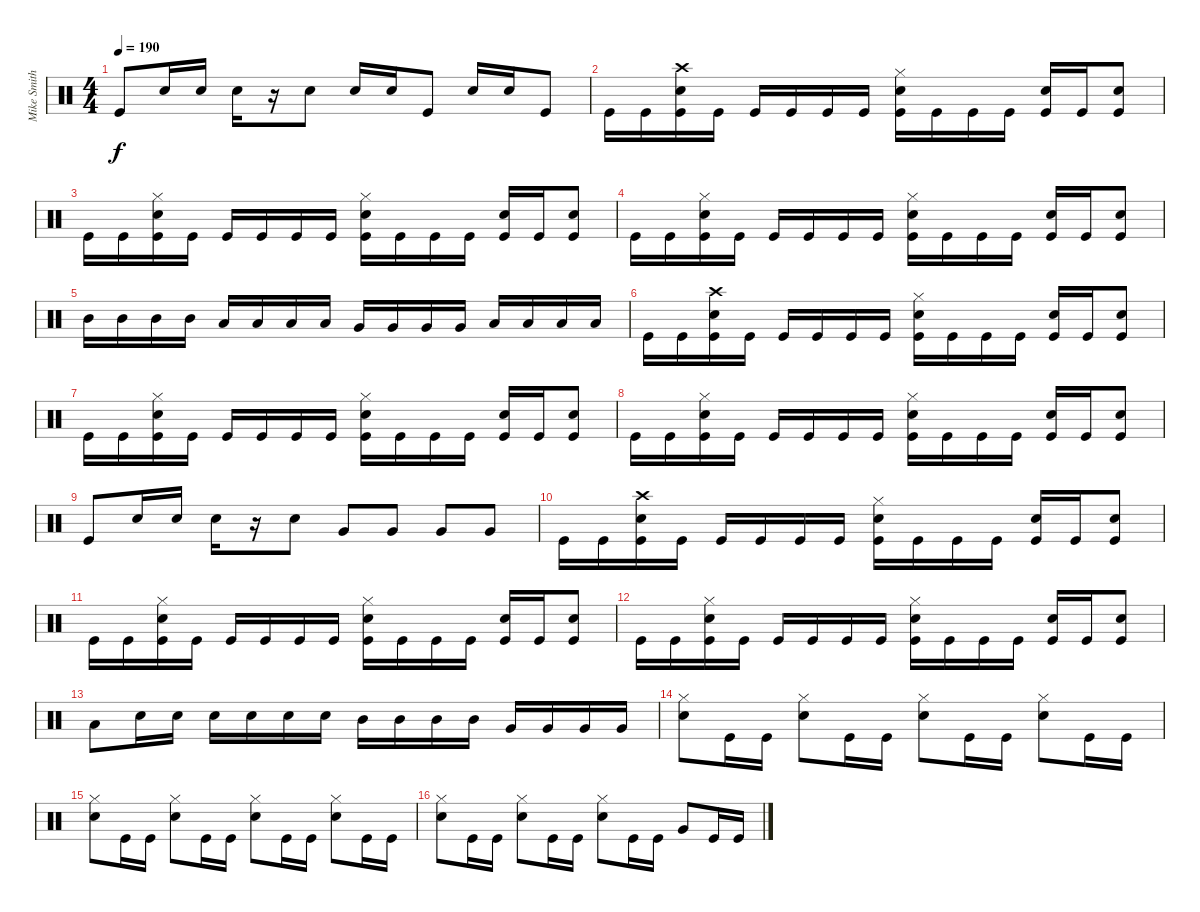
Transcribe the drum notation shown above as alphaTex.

\track ("Mike Smith" "Mike Smith") {instrument percussion}
\staff
\articulation defaults
\ts (4 4)
\tempo 190
\clef neutral
\ks c "Kick (hit)".8{dy f} "Snare (hit) 2".16 "Snare (hit) 2".16 "Snare (hit) 2".16
r.16 "Snare (hit) 2".8 "Snare (hit) 2".16 "Snare (hit) 2".16 "Kick (hit)".8 "Snare (hit) 2".16 "Snare (hit) 2".16 "Kick (hit)".8 |
"Kick (hit)".16 "Kick (hit)".16 ("Crash high (hit)" "Snare (hit) 2" "Kick (hit)").16 "Kick (hit)".16 "Kick (hit)".16 "Kick (hit)".16 "Kick (hit)".16 "Kick (hit)".16 ("Hi-Hat (closed)" "Snare (hit) 2" "Kick (hit)").16 "Kick (hit)".16 "Kick (hit)".16 "Kick (hit)".16 ("Snare (hit) 2" "Kick (hit)").16 "Kick (hit)".16 ("Snare (hit) 2" "Kick (hit)").8 |
"Kick (hit)".16 "Kick (hit)".16 ("Hi-Hat (closed)" "Snare (hit) 2" "Kick (hit)").16 "Kick (hit)".16 "Kick (hit)".16 "Kick (hit)".16 "Kick (hit)".16 "Kick (hit)".16 ("Hi-Hat (closed)" "Snare (hit) 2" "Kick (hit)").16 "Kick (hit)".16 "Kick (hit)".16 "Kick (hit)".16 ("Snare (hit) 2" "Kick (hit)").16 "Kick (hit)".16 ("Snare (hit) 2" "Kick (hit)").8 |
"Kick (hit)".16 "Kick (hit)".16 ("Hi-Hat (closed)" "Snare (hit) 2" "Kick (hit)").16 "Kick (hit)".16 "Kick (hit)".16 "Kick (hit)".16 "Kick (hit)".16 "Kick (hit)".16 ("Hi-Hat (closed)" "Snare (hit) 2" "Kick (hit)").16 "Kick (hit)".16 "Kick (hit)".16 "Kick (hit)".16 ("Snare (hit) 2" "Kick (hit)").16 "Kick (hit)".16 ("Snare (hit) 2" "Kick (hit)").8 |
"Mid Tom (hit)".16 "Mid Tom (hit)".16 "Mid Tom (hit)".16 "Mid Tom (hit)".16 "Low Tom (hit)".16 "Low Tom (hit)".16 "Low Tom (hit)".16 "Low Tom (hit)".16 "Very Low Tom (hit)".16 "Very Low Tom (hit)".16 "Very Low Tom (hit)".16 "Very Low Tom (hit)".16 "Low Floor Tom (hit)".16 "Low Floor Tom (hit)".16 "Low Floor Tom (hit)".16 "Low Floor Tom (hit)".16 |
"Kick (hit)".16 "Kick (hit)".16 ("Crash high (hit)" "Snare (hit) 2" "Kick (hit)").16 "Kick (hit)".16 "Kick (hit)".16 "Kick (hit)".16 "Kick (hit)".16 "Kick (hit)".16 ("Hi-Hat (closed)" "Snare (hit) 2" "Kick (hit)").16 "Kick (hit)".16 "Kick (hit)".16 "Kick (hit)".16 ("Snare (hit) 2" "Kick (hit)").16 "Kick (hit)".16 ("Snare (hit) 2" "Kick (hit)").8 |
"Kick (hit)".16 "Kick (hit)".16 ("Hi-Hat (closed)" "Snare (hit) 2" "Kick (hit)").16 "Kick (hit)".16 "Kick (hit)".16 "Kick (hit)".16 "Kick (hit)".16 "Kick (hit)".16 ("Hi-Hat (closed)" "Snare (hit) 2" "Kick (hit)").16 "Kick (hit)".16 "Kick (hit)".16 "Kick (hit)".16 ("Snare (hit) 2" "Kick (hit)").16 "Kick (hit)".16 ("Snare (hit) 2" "Kick (hit)").8 |
"Kick (hit)".16 "Kick (hit)".16 ("Hi-Hat (closed)" "Snare (hit) 2" "Kick (hit)").16 "Kick (hit)".16 "Kick (hit)".16 "Kick (hit)".16 "Kick (hit)".16 "Kick (hit)".16 ("Hi-Hat (closed)" "Snare (hit) 2" "Kick (hit)").16 "Kick (hit)".16 "Kick (hit)".16 "Kick (hit)".16 ("Snare (hit) 2" "Kick (hit)").16 "Kick (hit)".16 ("Snare (hit) 2" "Kick (hit)").8 |
"Kick (hit)".8 "Snare (hit) 2".16 "Snare (hit) 2".16 "Snare (hit) 2".16 r.16 "Snare (hit) 2".8 "Very Low Tom (hit)".8 "Very Low Tom (hit)".8 "Very Low Tom (hit)".8 "Very Low Tom (hit)".8 |
"Kick (hit)".16 "Kick (hit)".16 ("Crash high (hit)" "Snare (hit) 2" "Kick (hit)").16 "Kick (hit)".16 "Kick (hit)".16 "Kick (hit)".16 "Kick (hit)".16 "Kick (hit)".16 ("Hi-Hat (closed)" "Snare (hit) 2" "Kick (hit)").16 "Kick (hit)".16 "Kick (hit)".16 "Kick (hit)".16 ("Snare (hit) 2" "Kick (hit)").16 "Kick (hit)".16 ("Snare (hit) 2" "Kick (hit)").8 |
"Kick (hit)".16 "Kick (hit)".16 ("Hi-Hat (closed)" "Snare (hit) 2" "Kick (hit)").16 "Kick (hit)".16 "Kick (hit)".16 "Kick (hit)".16 "Kick (hit)".16 "Kick (hit)".16 ("Hi-Hat (closed)" "Snare (hit) 2" "Kick (hit)").16 "Kick (hit)".16 "Kick (hit)".16 "Kick (hit)".16 ("Snare (hit) 2" "Kick (hit)").16 "Kick (hit)".16 ("Snare (hit) 2" "Kick (hit)").8 |
"Kick (hit)".16 "Kick (hit)".16 ("Hi-Hat (closed)" "Snare (hit) 2" "Kick (hit)").16 "Kick (hit)".16 "Kick (hit)".16 "Kick (hit)".16 "Kick (hit)".16 "Kick (hit)".16 ("Hi-Hat (closed)" "Snare (hit) 2" "Kick (hit)").16 "Kick (hit)".16 "Kick (hit)".16 "Kick (hit)".16 ("Snare (hit) 2" "Kick (hit)").16 "Kick (hit)".16 ("Snare (hit) 2" "Kick (hit)").8 |
"Low Floor Tom (hit)".8 "Snare (hit) 2".16 "Snare (hit) 2".16 "Snare (hit) 2".16 "Snare (hit) 2".16 "Snare (hit) 2".16 "Snare (hit) 2".16 "Mid Tom (hit)".16 "Mid Tom (hit)".16 "Mid Tom (hit)".16 "Mid Tom (hit)".16 "Very Low Tom (hit)".16 "Very Low Tom (hit)".16 "Very Low Tom (hit)".16 "Very Low Tom (hit)".16 |
("Hi-Hat (closed)" "Snare (hit) 2").8 "Kick (hit)".16 "Kick (hit)".16 ("Hi-Hat (closed)" "Snare (hit) 2").8 "Kick (hit)".16 "Kick (hit)".16 ("Hi-Hat (closed)" "Snare (hit) 2").8 "Kick (hit)".16 "Kick (hit)".16 ("Hi-Hat (closed)" "Snare (hit) 2").8 "Kick (hit)".16 "Kick (hit)".16 |
("Hi-Hat (closed)" "Snare (hit) 2").8 "Kick (hit)".16 "Kick (hit)".16 ("Hi-Hat (closed)" "Snare (hit) 2").8 "Kick (hit)".16 "Kick (hit)".16 ("Hi-Hat (closed)" "Snare (hit) 2").8 "Kick (hit)".16 "Kick (hit)".16 ("Hi-Hat (closed)" "Snare (hit) 2").8 "Kick (hit)".16 "Kick (hit)".16 |
("Hi-Hat (closed)" "Snare (hit) 2").8 "Kick (hit)".16 "Kick (hit)".16 ("Hi-Hat (closed)" "Snare (hit) 2").8 "Kick (hit)".16 "Kick (hit)".16 ("Hi-Hat (closed)" "Snare (hit) 2").8 "Kick (hit)".16 "Kick (hit)".16 "Very Low Tom (hit)".8 "Kick (hit)".16 "Kick (hit)".16
